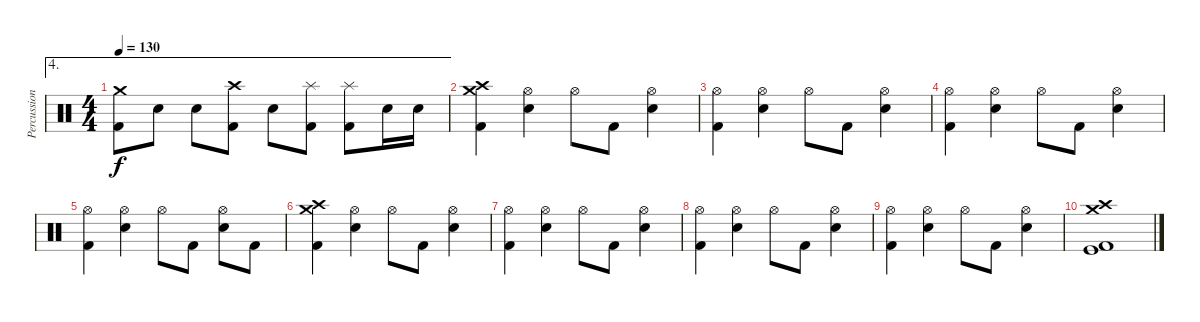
\track ("Percussion" "Percussion") {instrument percussion}
\staff {score}
\articulation defaults
\ae 4
\ts (4 4)
\tempo 130
\clef neutral
\ks c
("Crash medium (hit)" "Kick (hit) 2").8{dy f} "Snare (hit) 2".8 "Snare (hit) 2".8 ("Crash high (hit)" "Kick (hit) 2").8 "Snare (hit) 2".8 ("Splash (hit)" "Kick (hit) 2").8 ("Splash (hit)" "Kick (hit) 2").8 "Snare (hit) 2".16 "Snare (hit) 2".16 |
("Crash medium (hit)" "Crash high (hit)" "Kick (hit) 2").4 ("Hi-Hat (open)" "Snare (hit) 2").4 "Hi-Hat (open)".8 "Kick (hit) 2".8 ("Hi-Hat (open)" "Snare (hit) 2").4 |
("Hi-Hat (open)" "Kick (hit) 2").4 ("Hi-Hat (open)" "Snare (hit) 2").4 "Hi-Hat (open)".8 "Kick (hit) 2".8 ("Hi-Hat (open)" "Snare (hit) 2").4 |
("Hi-Hat (open)" "Kick (hit) 2").4 ("Hi-Hat (open)" "Snare (hit) 2").4 "Hi-Hat (open)".8 "Kick (hit) 2".8 ("Hi-Hat (open)" "Snare (hit) 2").4 |
("Hi-Hat (open)" "Kick (hit) 2").4 ("Hi-Hat (open)" "Snare (hit) 2").4 "Hi-Hat (open)".8 "Kick (hit) 2".8 ("Hi-Hat (open)" "Snare (hit) 2").8 "Kick (hit) 2".8 |
("Crash medium (hit)" "Crash high (hit)" "Kick (hit) 2").4 ("Hi-Hat (open)" "Snare (hit) 2").4 "Hi-Hat (open)".8 "Kick (hit) 2".8 ("Hi-Hat (open)" "Snare (hit) 2").4 |
("Hi-Hat (open)" "Kick (hit) 2").4 ("Hi-Hat (open)" "Snare (hit) 2").4 "Hi-Hat (open)".8 "Kick (hit) 2".8 ("Hi-Hat (open)" "Snare (hit) 2").4 |
("Hi-Hat (open)" "Kick (hit) 2").4 ("Hi-Hat (open)" "Snare (hit) 2").4 "Hi-Hat (open)".8 "Kick (hit) 2".8 ("Hi-Hat (open)" "Snare (hit) 2").4 |
("Hi-Hat (open)" "Kick (hit) 2").4 ("Hi-Hat (open)" "Snare (hit) 2").4 "Hi-Hat (open)".8 "Kick (hit) 2".8 ("Hi-Hat (open)" "Snare (hit) 2").4 |
("Crash medium (hit)" "Crash high (hit)" "Kick (hit)" "Kick (hit) 2").1
